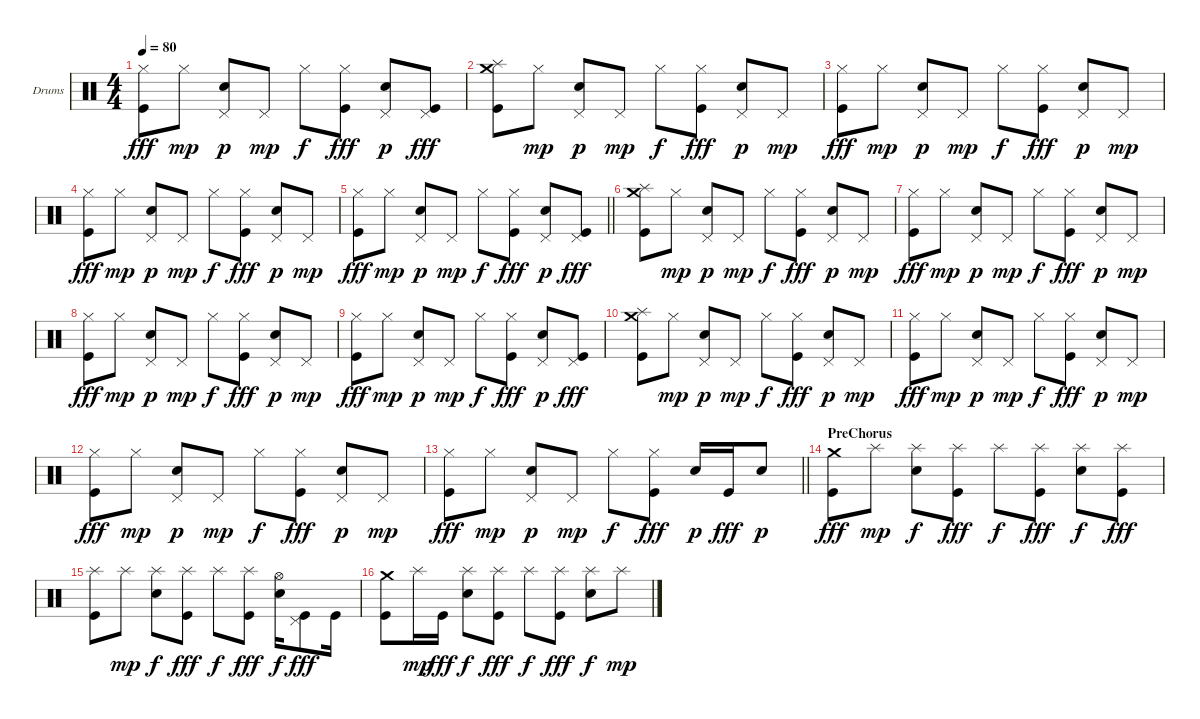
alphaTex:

\bracketExtendMode groupsimilarinstruments
\firstSystemTrackNameOrientation horizontal
\otherSystemsTrackNameOrientation horizontal
\track ("Drumkit" "Drums") {instrument percussion}
\staff {score}
\articulation defaults
\ts (4 4)
\tempo 80
\clef neutral
\ks c
("Kick (hit)" "Hi-Hat (closed)").8{dy fff} "Hi-Hat (closed)".8{dy mp} ("Pedal Hi-Hat (hit)" "Snare (hit) 2").8{dy p} "Pedal Hi-Hat (hit)".8{dy mp} "Hi-Hat (closed)".8{dy f} ("Kick (hit)" "Hi-Hat (closed)").8{dy fff} ("Pedal Hi-Hat (hit)" "Snare (hit) 2").8{dy p} ("Kick (hit)" "Pedal Hi-Hat (hit)").8{dy fff} |
("Kick (hit)" "Crash medium (hit)" "Splash (hit)").8 "Hi-Hat (closed)".8{dy mp} ("Pedal Hi-Hat (hit)" "Snare (hit) 2").8{dy p} "Pedal Hi-Hat (hit)".8{dy mp} "Hi-Hat (closed)".8{dy f} ("Kick (hit)" "Hi-Hat (closed)").8{dy fff} ("Pedal Hi-Hat (hit)" "Snare (hit) 2").8{dy p} "Pedal Hi-Hat (hit)".8{dy mp} |
("Kick (hit)" "Hi-Hat (closed)").8{dy fff} "Hi-Hat (closed)".8{dy mp} ("Pedal Hi-Hat (hit)" "Snare (hit) 2").8{dy p} "Pedal Hi-Hat (hit)".8{dy mp} "Hi-Hat (closed)".8{dy f} ("Kick (hit)" "Hi-Hat (closed)").8{dy fff} ("Pedal Hi-Hat (hit)" "Snare (hit) 2").8{dy p} "Pedal Hi-Hat (hit)".8{dy mp} |
("Kick (hit)" "Hi-Hat (closed)").8{dy fff} "Hi-Hat (closed)".8{dy mp} ("Pedal Hi-Hat (hit)" "Snare (hit) 2").8{dy p} "Pedal Hi-Hat (hit)".8{dy mp} "Hi-Hat (closed)".8{dy f} ("Kick (hit)" "Hi-Hat (closed)").8{dy fff} ("Pedal Hi-Hat (hit)" "Snare (hit) 2").8{dy p} "Pedal Hi-Hat (hit)".8{dy mp} |
\barLineRight lightlight
("Kick (hit)" "Hi-Hat (closed)").8{dy fff} "Hi-Hat (closed)".8{dy mp} ("Pedal Hi-Hat (hit)" "Snare (hit) 2").8{dy p} "Pedal Hi-Hat (hit)".8{dy mp} "Hi-Hat (closed)".8{dy f} ("Kick (hit)" "Hi-Hat (closed)").8{dy fff} ("Pedal Hi-Hat (hit)" "Snare (hit) 2").8{dy p} ("Kick (hit)" "Pedal Hi-Hat (hit)").8{dy fff} |
("Kick (hit)" "Crash medium (hit)" "Splash (hit)").8 "Hi-Hat (closed)".8{dy mp} ("Pedal Hi-Hat (hit)" "Snare (hit) 2").8{dy p} "Pedal Hi-Hat (hit)".8{dy mp} "Hi-Hat (closed)".8{dy f} ("Kick (hit)" "Hi-Hat (closed)").8{dy fff} ("Pedal Hi-Hat (hit)" "Snare (hit) 2").8{dy p} "Pedal Hi-Hat (hit)".8{dy mp} |
("Kick (hit)" "Hi-Hat (closed)").8{dy fff} "Hi-Hat (closed)".8{dy mp} ("Pedal Hi-Hat (hit)" "Snare (hit) 2").8{dy p} "Pedal Hi-Hat (hit)".8{dy mp} "Hi-Hat (closed)".8{dy f} ("Kick (hit)" "Hi-Hat (closed)").8{dy fff} ("Pedal Hi-Hat (hit)" "Snare (hit) 2").8{dy p} "Pedal Hi-Hat (hit)".8{dy mp} |
("Kick (hit)" "Hi-Hat (closed)").8{dy fff} "Hi-Hat (closed)".8{dy mp} ("Pedal Hi-Hat (hit)" "Snare (hit) 2").8{dy p} "Pedal Hi-Hat (hit)".8{dy mp} "Hi-Hat (closed)".8{dy f} ("Kick (hit)" "Hi-Hat (closed)").8{dy fff} ("Pedal Hi-Hat (hit)" "Snare (hit) 2").8{dy p} "Pedal Hi-Hat (hit)".8{dy mp} |
("Kick (hit)" "Hi-Hat (closed)").8{dy fff} "Hi-Hat (closed)".8{dy mp} ("Pedal Hi-Hat (hit)" "Snare (hit) 2").8{dy p} "Pedal Hi-Hat (hit)".8{dy mp} "Hi-Hat (closed)".8{dy f} ("Kick (hit)" "Hi-Hat (closed)").8{dy fff} ("Pedal Hi-Hat (hit)" "Snare (hit) 2").8{dy p} ("Kick (hit)" "Pedal Hi-Hat (hit)").8{dy fff} |
("Kick (hit)" "Crash medium (hit)" "Splash (hit)").8 "Hi-Hat (closed)".8{dy mp} ("Pedal Hi-Hat (hit)" "Snare (hit) 2").8{dy p} "Pedal Hi-Hat (hit)".8{dy mp} "Hi-Hat (closed)".8{dy f} ("Kick (hit)" "Hi-Hat (closed)").8{dy fff} ("Pedal Hi-Hat (hit)" "Snare (hit) 2").8{dy p} "Pedal Hi-Hat (hit)".8{dy mp} |
("Kick (hit)" "Hi-Hat (closed)").8{dy fff} "Hi-Hat (closed)".8{dy mp} ("Pedal Hi-Hat (hit)" "Snare (hit) 2").8{dy p} "Pedal Hi-Hat (hit)".8{dy mp} "Hi-Hat (closed)".8{dy f} ("Kick (hit)" "Hi-Hat (closed)").8{dy fff} ("Pedal Hi-Hat (hit)" "Snare (hit) 2").8{dy p} "Pedal Hi-Hat (hit)".8{dy mp} |
("Kick (hit)" "Hi-Hat (closed)").8{dy fff} "Hi-Hat (closed)".8{dy mp} ("Pedal Hi-Hat (hit)" "Snare (hit) 2").8{dy p} "Pedal Hi-Hat (hit)".8{dy mp} "Hi-Hat (closed)".8{dy f} ("Kick (hit)" "Hi-Hat (closed)").8{dy fff} ("Pedal Hi-Hat (hit)" "Snare (hit) 2").8{dy p} "Pedal Hi-Hat (hit)".8{dy mp} |
\barLineRight lightlight
("Kick (hit)" "Hi-Hat (closed)").8{dy fff} "Hi-Hat (closed)".8{dy mp} ("Pedal Hi-Hat (hit)" "Snare (hit) 2").8{dy p} "Pedal Hi-Hat (hit)".8{dy mp} "Hi-Hat (closed)".8{dy f} ("Kick (hit)" "Hi-Hat (closed)").8{dy fff} "Snare (hit) 2".16{dy p} "Kick (hit)".16{dy fff} "Snare (hit) 2".8{dy p} |
\section ("" "PreChorus")
("Kick (hit)" "Crash medium (hit)").8{dy fff} "Splash (hit)".8{dy mp} ("Splash (hit)" "Snare (hit) 2").8{dy f} ("Kick (hit)" "Splash (hit)").8{dy fff} "Splash (hit)".8{dy f} ("Kick (hit)" "Splash (hit)").8{dy fff} ("Splash (hit)" "Snare (hit) 2").8{dy f} ("Kick (hit)" "Splash (hit)").8{dy fff} |
("Kick (hit)" "Splash (hit)").8 "Splash (hit)".8{dy mp} ("Splash (hit)" "Snare (hit) 2").8{dy f} ("Kick (hit)" "Splash (hit)").8{dy fff} "Splash (hit)".8{dy f} ("Kick (hit)" "Splash (hit)").8{dy fff} ("Hi-Hat (open)" "Snare (hit) 2").16{dy f} ("Kick (hit)" "Pedal Hi-Hat (hit)").8{dy fff} "Kick (hit)".16 |
("Kick (hit)" "Crash medium (hit)").8 "Splash (hit)".16{dy mp} "Kick (hit)".16{dy fff} ("Splash (hit)" "Snare (hit) 2").8{dy f} ("Kick (hit)" "Splash (hit)").8{dy fff} "Splash (hit)".8{dy f} ("Kick (hit)" "Splash (hit)").8{dy fff} ("Splash (hit)" "Snare (hit) 2").8{dy f} "Splash (hit)".8{dy mp}
